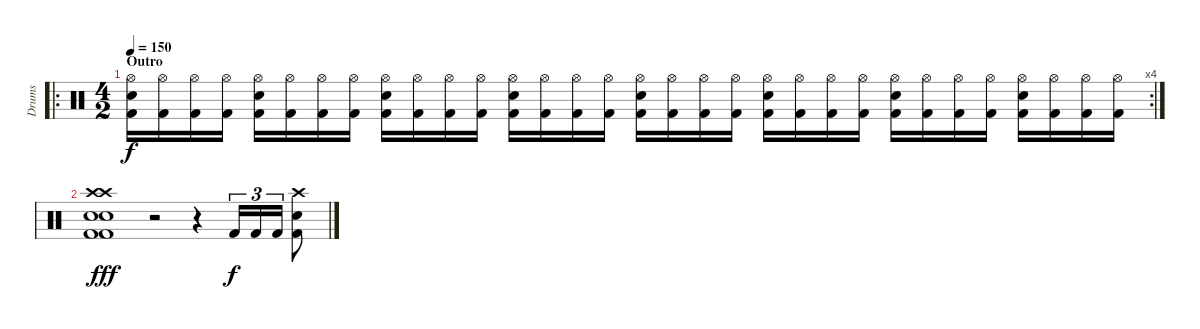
\track ("Drums" "Drums") {instrument percussion}
\staff {score}
\articulation defaults
\ro
\rc 4
\ts (4 2)
\section ("" "Outro")
\tempo 150
\clef neutral
\ks c
("Hi-Hat (open)" "Kick (hit) 2" "Electric Snare (hit)").16{dy f} ("Hi-Hat (open)" "Kick (hit) 2").16 ("Hi-Hat (open)" "Kick (hit) 2").16 ("Hi-Hat (open)" "Kick (hit) 2").16 ("Hi-Hat (open)" "Kick (hit) 2" "Electric Snare (hit)").16 ("Hi-Hat (open)" "Kick (hit) 2").16 ("Hi-Hat (open)" "Kick (hit) 2").16 ("Hi-Hat (open)" "Kick (hit) 2").16 ("Hi-Hat (open)" "Kick (hit) 2" "Electric Snare (hit)").16 ("Hi-Hat (open)" "Kick (hit) 2").16 ("Hi-Hat (open)" "Kick (hit) 2").16 ("Hi-Hat (open)" "Kick (hit) 2").16 ("Hi-Hat (open)" "Kick (hit) 2" "Electric Snare (hit)").16 ("Hi-Hat (open)" "Kick (hit) 2").16 ("Hi-Hat (open)" "Kick (hit) 2").16 ("Hi-Hat (open)" "Kick (hit) 2").16 ("Hi-Hat (open)" "Kick (hit) 2" "Electric Snare (hit)").16 ("Hi-Hat (open)" "Kick (hit) 2").16 ("Hi-Hat (open)" "Kick (hit) 2").16 ("Hi-Hat (open)" "Kick (hit) 2").16 ("Hi-Hat (open)" "Kick (hit) 2" "Electric Snare (hit)").16 ("Hi-Hat (open)" "Kick (hit) 2").16 ("Hi-Hat (open)" "Kick (hit) 2").16 ("Hi-Hat (open)" "Kick (hit) 2").16 ("Hi-Hat (open)" "Kick (hit) 2" "Electric Snare (hit)").16 ("Hi-Hat (open)" "Kick (hit) 2").16 ("Hi-Hat (open)" "Kick (hit) 2").16 ("Hi-Hat (open)" "Kick (hit) 2").16 ("Hi-Hat (open)" "Kick (hit) 2" "Electric Snare (hit)").16 ("Hi-Hat (open)" "Kick (hit) 2").16 ("Hi-Hat (open)" "Kick (hit) 2").16 ("Hi-Hat (open)" "Kick (hit) 2").16 |
("Crash high (hit)" "Crash high (hit)" "Electric Snare (hit)" "Electric Snare (hit)" "Kick (hit) 2" "Kick (hit) 2").1{dy fff} r.2 r.4 "Kick (hit) 2".16{tu (3 2) dy f} "Kick (hit) 2".16{tu (3 2)} "Kick (hit) 2".16{tu (3 2)} ("Electric Snare (hit)" "Crash high (hit)" "Kick (hit) 2").8
